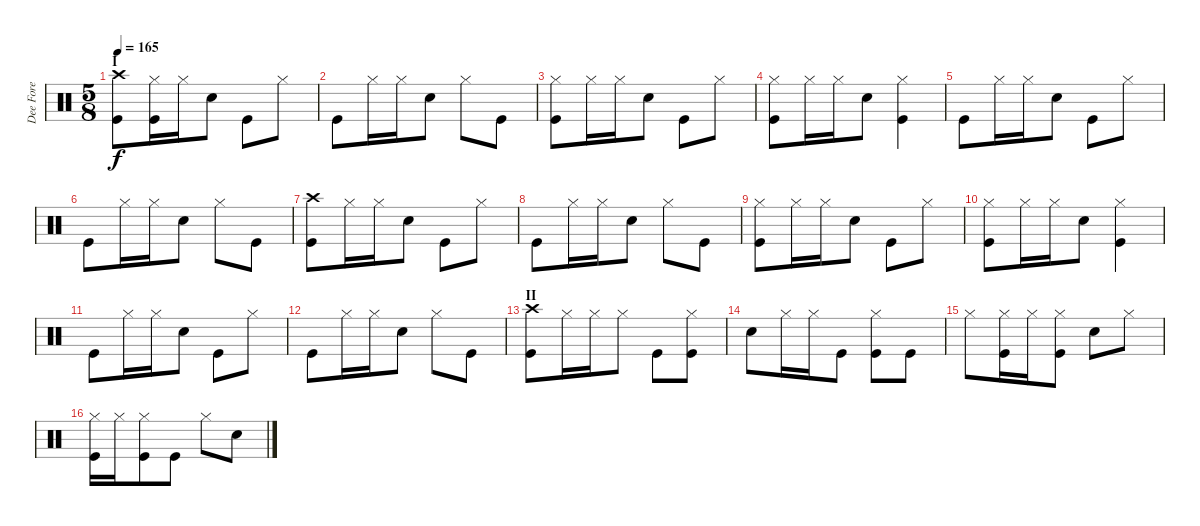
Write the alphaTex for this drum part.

\track ("Dee Fore" "Dee Fore") {instrument percussion}
\staff {score}
\articulation defaults
\ts (5 8)
\section ("" "I")
\tempo 165
\clef neutral
\ks c
("Crash high (hit)" "Kick (hit)").8{dy f} ("Hi-Hat (closed)" "Kick (hit)").16 "Hi-Hat (closed)".16 "Electric Snare (hit)".8 "Kick (hit)".8 "Hi-Hat (closed)".8 |
"Kick (hit)".8 "Hi-Hat (closed)".16 "Hi-Hat (closed)".16 "Electric Snare (hit)".8 "Hi-Hat (closed)".8 "Kick (hit)".8 |
("Hi-Hat (closed)" "Kick (hit)").8 "Hi-Hat (closed)".16 "Hi-Hat (closed)".16 "Electric Snare (hit)".8 "Kick (hit)".8 "Hi-Hat (closed)".8 |
("Hi-Hat (closed)" "Kick (hit)").8 "Hi-Hat (closed)".16 "Hi-Hat (closed)".16 "Electric Snare (hit)".8 ("Hi-Hat (closed)" "Kick (hit)").4 |
"Kick (hit)".8 "Hi-Hat (closed)".16 "Hi-Hat (closed)".16 "Electric Snare (hit)".8 "Kick (hit)".8 "Hi-Hat (closed)".8 |
"Kick (hit)".8 "Hi-Hat (closed)".16 "Hi-Hat (closed)".16 "Electric Snare (hit)".8 "Hi-Hat (closed)".8 "Kick (hit)".8 |
("Crash high (hit)" "Kick (hit)").8 "Hi-Hat (closed)".16 "Hi-Hat (closed)".16 "Electric Snare (hit)".8 "Kick (hit)".8 "Hi-Hat (closed)".8 |
"Kick (hit)".8 "Hi-Hat (closed)".16 "Hi-Hat (closed)".16 "Electric Snare (hit)".8 "Hi-Hat (closed)".8 "Kick (hit)".8 |
("Hi-Hat (closed)" "Kick (hit)").8 "Hi-Hat (closed)".16 "Hi-Hat (closed)".16 "Electric Snare (hit)".8 "Kick (hit)".8 "Hi-Hat (closed)".8 |
("Hi-Hat (closed)" "Kick (hit)").8 "Hi-Hat (closed)".16 "Hi-Hat (closed)".16 "Electric Snare (hit)".8 ("Hi-Hat (closed)" "Kick (hit)").4 |
"Kick (hit)".8 "Hi-Hat (closed)".16 "Hi-Hat (closed)".16 "Electric Snare (hit)".8 "Kick (hit)".8 "Hi-Hat (closed)".8 |
"Kick (hit)".8 "Hi-Hat (closed)".16 "Hi-Hat (closed)".16 "Electric Snare (hit)".8 "Hi-Hat (closed)".8 "Kick (hit)".8 |
\section ("" "II")
("Crash high (hit)" "Kick (hit)").8 "Hi-Hat (closed)".16 "Hi-Hat (closed)".16 "Hi-Hat (closed)".8 "Kick (hit)".8 ("Hi-Hat (closed)" "Kick (hit)").8 |
"Electric Snare (hit)".8 "Hi-Hat (closed)".16 "Hi-Hat (closed)".16 "Kick (hit)".8 ("Hi-Hat (closed)" "Kick (hit)").8 "Kick (hit)".8 |
"Hi-Hat (closed)".8 ("Hi-Hat (closed)" "Kick (hit)").16 "Hi-Hat (closed)".16 ("Hi-Hat (closed)" "Kick (hit)").8 "Electric Snare (hit)".8 "Hi-Hat (closed)".8 |
("Hi-Hat (closed)" "Kick (hit)").16 "Hi-Hat (closed)".16 ("Hi-Hat (closed)" "Kick (hit)").8 "Kick (hit)".8 "Hi-Hat (closed)".8 "Electric Snare (hit)".8
